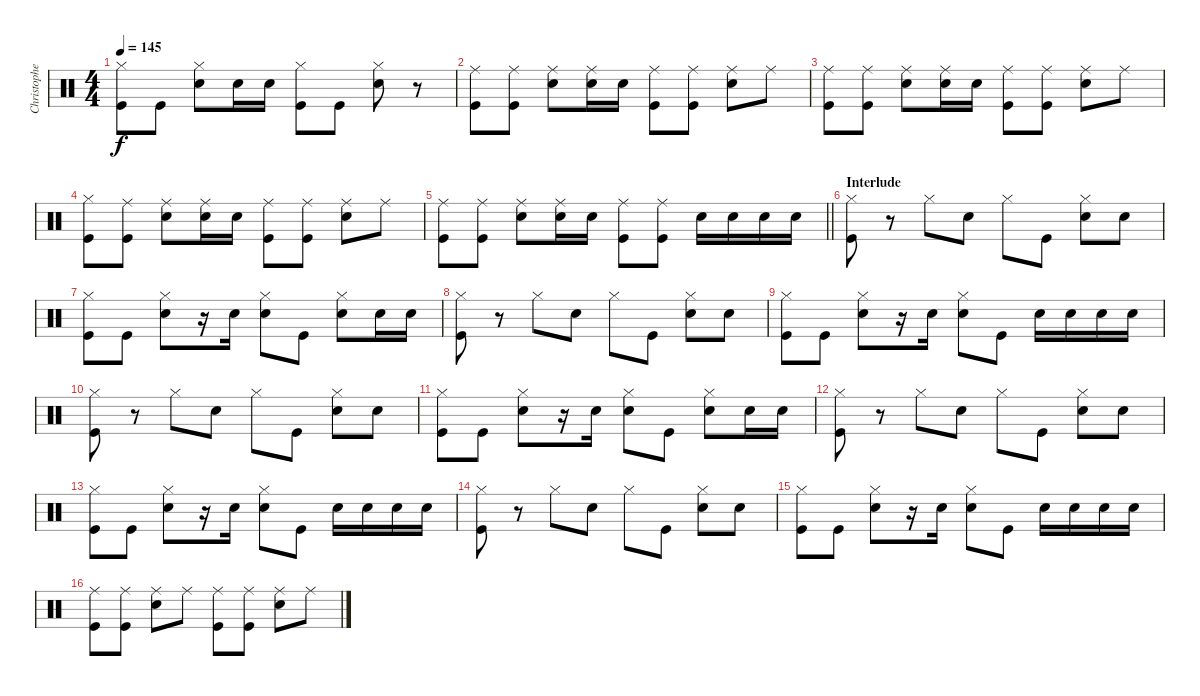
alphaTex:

\track ("Christopher - Drums" "Christophe") {instrument percussion}
\staff {score}
\articulation defaults
\ts (4 4)
\tempo 145
\clef neutral
\ks c
("Hi-Hat (closed)" "Kick (hit)").8{dy f} "Kick (hit)".8 ("Hi-Hat (closed)" "Snare (hit) 2").8 "Snare (hit) 2".16 "Snare (hit) 2".16 ("Hi-Hat (closed)" "Kick (hit)").8 "Kick (hit)".8 ("Hi-Hat (closed)" "Snare (hit) 2").8 r.8 |
("Ride (middle)" "Kick (hit)").8 ("Ride (middle)" "Kick (hit)").8 ("Ride (middle)" "Snare (hit) 2").8 ("Ride (middle)" "Snare (hit) 2").16 "Snare (hit) 2".16 ("Ride (middle)" "Kick (hit)").8 ("Ride (middle)" "Kick (hit)").8 ("Ride (middle)" "Snare (hit) 2").8 "Ride (middle)".8 |
("Ride (middle)" "Kick (hit)").8 ("Ride (middle)" "Kick (hit)").8 ("Ride (middle)" "Snare (hit) 2").8 ("Ride (middle)" "Snare (hit) 2").16 "Snare (hit) 2".16 ("Ride (middle)" "Kick (hit)").8 ("Ride (middle)" "Kick (hit)").8 ("Ride (middle)" "Snare (hit) 2").8 "Ride (middle)".8 |
("Hi-Hat (closed)" "Kick (hit)").8 ("Ride (middle)" "Kick (hit)").8 ("Ride (middle)" "Snare (hit) 2").8 ("Ride (middle)" "Snare (hit) 2").16 "Snare (hit) 2".16 ("Ride (middle)" "Kick (hit)").8 ("Ride (middle)" "Kick (hit)").8 ("Ride (middle)" "Snare (hit) 2").8 "Ride (middle)".8 |
\barLineRight lightlight
("Ride (middle)" "Kick (hit)").8 ("Ride (middle)" "Kick (hit)").8 ("Ride (middle)" "Snare (hit) 2").8 ("Ride (middle)" "Snare (hit) 2").16 "Snare (hit) 2".16 ("Ride (middle)" "Kick (hit)").8 ("Ride (middle)" "Kick (hit)").8 "Snare (hit) 2".16 "Snare (hit) 2".16 "Snare (hit) 2".16 "Snare (hit) 2".16 |
\section ("" "Interlude")
("Hi-Hat (closed)" "Kick (hit)").8 r.8 "Hi-Hat (closed)".8 "Snare (hit) 2".8 "Hi-Hat (closed)".8 "Kick (hit)".8 ("Hi-Hat (closed)" "Snare (hit) 2").8 "Snare (hit) 2".8 |
("Hi-Hat (closed)" "Kick (hit)").8 "Kick (hit)".8 ("Hi-Hat (closed)" "Snare (hit) 2").8 r.16 "Snare (hit) 2".16 ("Hi-Hat (closed)" "Snare (hit) 2").8 "Kick (hit)".8 ("Hi-Hat (closed)" "Snare (hit) 2").8 "Snare (hit) 2".16 "Snare (hit) 2".16 |
("Hi-Hat (closed)" "Kick (hit)").8 r.8 "Hi-Hat (closed)".8 "Snare (hit) 2".8 "Hi-Hat (closed)".8 "Kick (hit)".8 ("Hi-Hat (closed)" "Snare (hit) 2").8 "Snare (hit) 2".8 |
("Hi-Hat (closed)" "Kick (hit)").8 "Kick (hit)".8 ("Hi-Hat (closed)" "Snare (hit) 2").8 r.16 "Snare (hit) 2".16 ("Hi-Hat (closed)" "Snare (hit) 2").8 "Kick (hit)".8 "Snare (hit) 2".16 "Snare (hit) 2".16 "Snare (hit) 2".16 "Snare (hit) 2".16 |
("Hi-Hat (closed)" "Kick (hit)").8 r.8 "Hi-Hat (closed)".8 "Snare (hit) 2".8 "Hi-Hat (closed)".8 "Kick (hit)".8 ("Hi-Hat (closed)" "Snare (hit) 2").8 "Snare (hit) 2".8 |
("Hi-Hat (closed)" "Kick (hit)").8 "Kick (hit)".8 ("Hi-Hat (closed)" "Snare (hit) 2").8 r.16 "Snare (hit) 2".16 ("Hi-Hat (closed)" "Snare (hit) 2").8 "Kick (hit)".8 ("Hi-Hat (closed)" "Snare (hit) 2").8 "Snare (hit) 2".16 "Snare (hit) 2".16 |
("Hi-Hat (closed)" "Kick (hit)").8 r.8 "Hi-Hat (closed)".8 "Snare (hit) 2".8 "Hi-Hat (closed)".8 "Kick (hit)".8 ("Hi-Hat (closed)" "Snare (hit) 2").8 "Snare (hit) 2".8 |
("Hi-Hat (closed)" "Kick (hit)").8 "Kick (hit)".8 ("Hi-Hat (closed)" "Snare (hit) 2").8 r.16 "Snare (hit) 2".16 ("Hi-Hat (closed)" "Snare (hit) 2").8 "Kick (hit)".8 "Snare (hit) 2".16 "Snare (hit) 2".16 "Snare (hit) 2".16 "Snare (hit) 2".16 |
("Hi-Hat (closed)" "Kick (hit)").8 r.8 "Hi-Hat (closed)".8 "Snare (hit) 2".8 "Hi-Hat (closed)".8 "Kick (hit)".8 ("Hi-Hat (closed)" "Snare (hit) 2").8 "Snare (hit) 2".8 |
("Hi-Hat (closed)" "Kick (hit)").8 "Kick (hit)".8 ("Hi-Hat (closed)" "Snare (hit) 2").8 r.16 "Snare (hit) 2".16 ("Hi-Hat (closed)" "Snare (hit) 2").8 "Kick (hit)".8 "Snare (hit) 2".16 "Snare (hit) 2".16 "Snare (hit) 2".16 "Snare (hit) 2".16 |
("Ride (middle)" "Kick (hit)").8 ("Ride (middle)" "Kick (hit)").8 ("Ride (middle)" "Snare (hit) 2").8 "Ride (middle)".8 ("Ride (middle)" "Kick (hit)").8 ("Ride (middle)" "Kick (hit)").8 ("Ride (middle)" "Snare (hit) 2").8 "Ride (middle)".8
